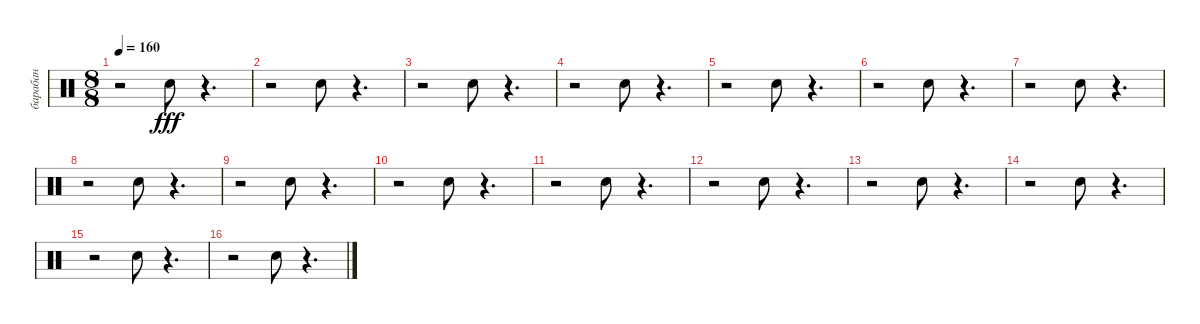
\track ("барабан" "барабан") {instrument percussion}
\staff {score}
\articulation defaults
\ts (8 8)
\tempo 160
\clef neutral
\ks c
r.2{dy fff} "Snare (hit) 2".8 r.4{d} |
r.2 "Snare (hit) 2".8 r.4{d} |
r.2 "Snare (hit) 2".8 r.4{d} |
r.2 "Snare (hit) 2".8 r.4{d} |
r.2 "Snare (hit) 2".8 r.4{d} |
r.2 "Snare (hit) 2".8 r.4{d} |
r.2 "Snare (hit) 2".8 r.4{d} |
r.2 "Snare (hit) 2".8 r.4{d} |
r.2 "Snare (hit) 2".8 r.4{d} |
r.2 "Snare (hit) 2".8 r.4{d} |
r.2 "Snare (hit) 2".8 r.4{d} |
r.2 "Snare (hit) 2".8 r.4{d} |
r.2 "Snare (hit) 2".8 r.4{d} |
r.2 "Snare (hit) 2".8 r.4{d} |
r.2 "Snare (hit) 2".8 r.4{d} |
r.2 "Snare (hit) 2".8 r.4{d}
